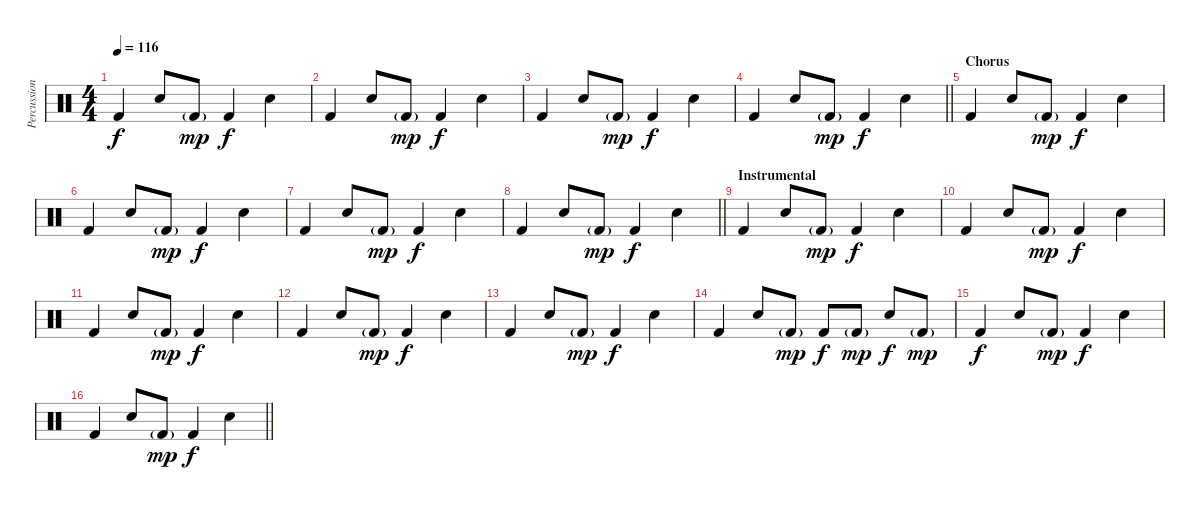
\track ("Percussion" "Percussion") {instrument percussion}
\staff {score}
\articulation defaults
\ts (4 4)
\tempo 116
\clef neutral
\ks c "Kick (hit) 2".4{dy f} "Snare (hit) 2".8 "Kick (hit) 2"{g}.8{dy mp} "Kick (hit) 2".4{dy f} "Snare (hit) 2".4
|
"Kick (hit) 2".4 "Snare (hit) 2".8 "Kick (hit) 2"{g}.8{dy mp} "Kick (hit) 2".4{dy f} "Snare (hit) 2".4 |
"Kick (hit) 2".4 "Snare (hit) 2".8 "Kick (hit) 2"{g}.8{dy mp} "Kick (hit) 2".4{dy f} "Snare (hit) 2".4 |
\barLineRight lightlight "Kick (hit) 2".4 "Snare (hit) 2".8 "Kick (hit) 2"{g}.8{dy mp} "Kick (hit) 2".4{dy f} "Snare (hit) 2".4
|
\section ("" "Chorus")
"Kick (hit) 2".4 "Snare (hit) 2".8 "Kick (hit) 2"{g}.8{dy mp} "Kick (hit) 2".4{dy f} "Snare (hit) 2".4 |
"Kick (hit) 2".4 "Snare (hit) 2".8 "Kick (hit) 2"{g}.8{dy mp} "Kick (hit) 2".4{dy f} "Snare (hit) 2".4 |
"Kick (hit) 2".4 "Snare (hit) 2".8 "Kick (hit) 2"{g}.8{dy mp} "Kick (hit) 2".4{dy f} "Snare (hit) 2".4 |
\barLineRight lightlight "Kick (hit) 2".4 "Snare (hit) 2".8 "Kick (hit) 2"{g}.8{dy mp} "Kick (hit) 2".4{dy f} "Snare (hit) 2".4
|
\section ("" "Instrumental")
"Kick (hit) 2".4 "Snare (hit) 2".8 "Kick (hit) 2"{g}.8{dy mp} "Kick (hit) 2".4{dy f} "Snare (hit) 2".4 |
"Kick (hit) 2".4 "Snare (hit) 2".8 "Kick (hit) 2"{g}.8{dy mp} "Kick (hit) 2".4{dy f} "Snare (hit) 2".4 |
"Kick (hit) 2".4 "Snare (hit) 2".8 "Kick (hit) 2"{g}.8{dy mp} "Kick (hit) 2".4{dy f} "Snare (hit) 2".4 |
"Kick (hit) 2".4 "Snare (hit) 2".8 "Kick (hit) 2"{g}.8{dy mp} "Kick (hit) 2".4{dy f} "Snare (hit) 2".4 |
"Kick (hit) 2".4 "Snare (hit) 2".8 "Kick (hit) 2"{g}.8{dy mp} "Kick (hit) 2".4{dy f} "Snare (hit) 2".4 |
"Kick (hit) 2".4 "Snare (hit) 2".8 "Kick (hit) 2"{g}.8{dy mp} "Kick (hit) 2".8{dy f} "Kick (hit) 2"{g}.8{dy mp} "Snare (hit) 2".8{dy f} "Kick (hit) 2"{g}.8{dy mp} |
"Kick (hit) 2".4{dy f} "Snare (hit) 2".8 "Kick (hit) 2"{g}.8{dy mp} "Kick (hit) 2".4{dy f} "Snare (hit) 2".4 |
\barLineRight lightlight "Kick (hit) 2".4 "Snare (hit) 2".8 "Kick (hit) 2"{g}.8{dy mp} "Kick (hit) 2".4{dy f} "Snare (hit) 2".4
